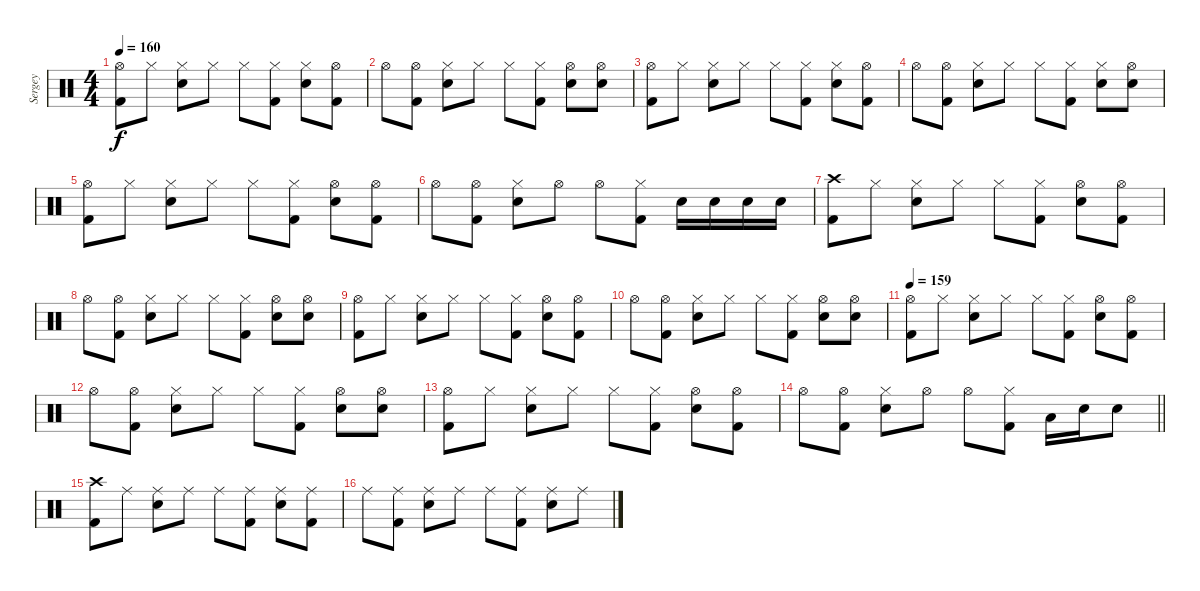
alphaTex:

\track ("Sergey" "Sergey") {instrument percussion}
\staff {score}
\articulation defaults
\ts (4 4)
\tempo 160
\clef neutral
\ks c
("Hi-Hat (open)" "Kick (hit) 2").8{dy f} "Hi-Hat (closed)".8 ("Hi-Hat (closed)" "Electric Snare (hit)").8 "Hi-Hat (closed)".8 "Hi-Hat (closed)".8 ("Hi-Hat (closed)" "Kick (hit) 2").8 ("Hi-Hat (closed)" "Electric Snare (hit)").8 ("Hi-Hat (open)" "Kick (hit) 2").8 |
"Hi-Hat (open)".8 ("Hi-Hat (open)" "Kick (hit) 2").8 ("Hi-Hat (closed)" "Electric Snare (hit)").8 "Hi-Hat (closed)".8 "Hi-Hat (closed)".8 ("Hi-Hat (closed)" "Kick (hit) 2").8 ("Hi-Hat (open)" "Electric Snare (hit)").8 ("Hi-Hat (open)" "Electric Snare (hit)").8 |
("Hi-Hat (open)" "Kick (hit) 2").8 "Hi-Hat (closed)".8 ("Hi-Hat (closed)" "Electric Snare (hit)").8 "Hi-Hat (closed)".8 "Hi-Hat (closed)".8 ("Hi-Hat (closed)" "Kick (hit) 2").8 ("Hi-Hat (closed)" "Electric Snare (hit)").8 ("Hi-Hat (open)" "Kick (hit) 2").8 |
"Hi-Hat (open)".8 ("Hi-Hat (open)" "Kick (hit) 2").8 ("Hi-Hat (closed)" "Electric Snare (hit)").8 "Hi-Hat (closed)".8 "Hi-Hat (closed)".8 ("Hi-Hat (closed)" "Kick (hit) 2").8 ("Hi-Hat (closed)" "Electric Snare (hit)").8 ("Hi-Hat (open)" "Electric Snare (hit)").8 |
("Hi-Hat (open)" "Kick (hit) 2").8 "Hi-Hat (closed)".8 ("Hi-Hat (closed)" "Electric Snare (hit)").8 "Hi-Hat (closed)".8 "Hi-Hat (closed)".8 ("Hi-Hat (closed)" "Kick (hit) 2").8 ("Hi-Hat (open)" "Electric Snare (hit)").8 ("Hi-Hat (open)" "Kick (hit) 2").8 |
"Hi-Hat (open)".8 ("Hi-Hat (open)" "Kick (hit) 2").8 ("Hi-Hat (closed)" "Electric Snare (hit)").8 "Hi-Hat (open)".8 "Hi-Hat (open)".8 ("Hi-Hat (closed)" "Kick (hit) 2").8 "Electric Snare (hit)".16 "Electric Snare (hit)".16 "Electric Snare (hit)".16 "Electric Snare (hit)".16 |
("Crash high (hit)" "Kick (hit) 2").8 "Hi-Hat (closed)".8 ("Hi-Hat (closed)" "Electric Snare (hit)").8 "Hi-Hat (closed)".8 "Hi-Hat (closed)".8 ("Hi-Hat (closed)" "Kick (hit) 2").8 ("Hi-Hat (open)" "Electric Snare (hit)").8 ("Hi-Hat (open)" "Kick (hit) 2").8 |
"Hi-Hat (open)".8 ("Hi-Hat (open)" "Kick (hit) 2").8 ("Hi-Hat (closed)" "Electric Snare (hit)").8 "Hi-Hat (closed)".8 "Hi-Hat (closed)".8 ("Hi-Hat (closed)" "Kick (hit) 2").8 ("Hi-Hat (open)" "Electric Snare (hit)").8 ("Hi-Hat (open)" "Electric Snare (hit)").8 |
("Hi-Hat (open)" "Kick (hit) 2").8 "Hi-Hat (closed)".8 ("Hi-Hat (closed)" "Electric Snare (hit)").8 "Hi-Hat (closed)".8 "Hi-Hat (closed)".8 ("Hi-Hat (closed)" "Kick (hit) 2").8 ("Hi-Hat (open)" "Electric Snare (hit)").8 ("Hi-Hat (open)" "Kick (hit) 2").8 |
"Hi-Hat (open)".8 ("Hi-Hat (open)" "Kick (hit) 2").8 ("Hi-Hat (closed)" "Electric Snare (hit)").8 "Hi-Hat (closed)".8 "Hi-Hat (closed)".8 ("Hi-Hat (closed)" "Kick (hit) 2").8 ("Hi-Hat (open)" "Electric Snare (hit)").8 ("Hi-Hat (open)" "Electric Snare (hit)").8 |
\tempo 159
("Hi-Hat (open)" "Kick (hit) 2").8 "Hi-Hat (closed)".8 ("Hi-Hat (closed)" "Electric Snare (hit)").8 "Hi-Hat (closed)".8 "Hi-Hat (closed)".8 ("Hi-Hat (closed)" "Kick (hit) 2").8 ("Hi-Hat (open)" "Electric Snare (hit)").8 ("Hi-Hat (open)" "Kick (hit) 2").8 |
"Hi-Hat (open)".8 ("Hi-Hat (open)" "Kick (hit) 2").8 ("Hi-Hat (closed)" "Electric Snare (hit)").8 "Hi-Hat (closed)".8 "Hi-Hat (closed)".8 ("Hi-Hat (closed)" "Kick (hit) 2").8 ("Hi-Hat (open)" "Electric Snare (hit)").8 ("Hi-Hat (open)" "Electric Snare (hit)").8 |
("Hi-Hat (open)" "Kick (hit) 2").8 "Hi-Hat (closed)".8 ("Hi-Hat (closed)" "Electric Snare (hit)").8 "Hi-Hat (closed)".8 "Hi-Hat (closed)".8 ("Hi-Hat (closed)" "Kick (hit) 2").8 ("Hi-Hat (open)" "Electric Snare (hit)").8 ("Hi-Hat (open)" "Kick (hit) 2").8 |
\barLineRight lightlight "Hi-Hat (open)".8
("Hi-Hat (open)" "Kick (hit) 2").8 ("Hi-Hat (closed)" "Electric Snare (hit)").8 "Hi-Hat (open)".8 "Hi-Hat (open)".8 ("Hi-Hat (closed)" "Kick (hit) 2").8 "Low Tom (hit)".16 "Electric Snare (hit)".16 "Electric Snare (hit)".8 |
\section ("" "")
("Crash high (hit)" "Kick (hit) 2").8 "Ride (middle)".8 ("Ride (middle)" "Electric Snare (hit)").8 "Ride (middle)".8 "Ride (middle)".8 ("Ride (middle)" "Kick (hit) 2").8 ("Ride (middle)" "Electric Snare (hit)").8 ("Ride (middle)" "Kick (hit) 2").8 |
"Ride (middle)".8 ("Ride (middle)" "Kick (hit) 2").8 ("Ride (middle)" "Electric Snare (hit)").8 "Ride (middle)".8 "Ride (middle)".8 ("Ride (middle)" "Kick (hit) 2").8 ("Ride (middle)" "Electric Snare (hit)").8 "Ride (middle)".8
